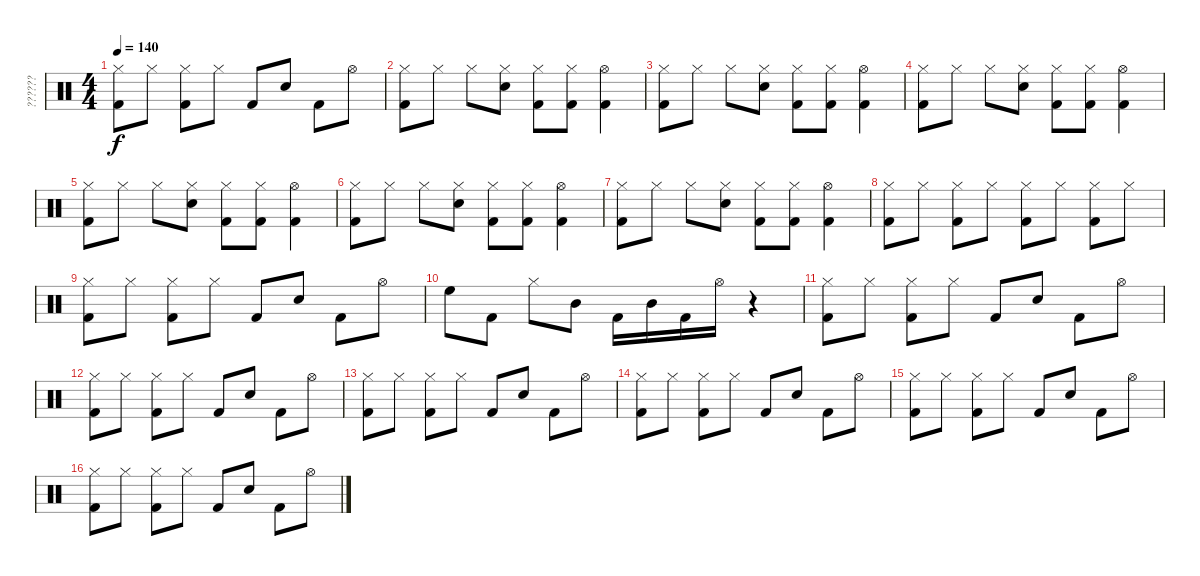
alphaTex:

\track ("??????" "??????") {instrument percussion}
\staff {score}
\articulation defaults
\ts (4 4)
\tempo 140
\clef neutral
\ks c
("Hi-Hat (closed)" "Kick (hit) 2").8{dy f} "Hi-Hat (closed)".8 ("Hi-Hat (closed)" "Kick (hit) 2").8 "Hi-Hat (closed)".8 "Kick (hit) 2".8 "Snare (hit) 2".8 "Kick (hit) 2".8 "Hi-Hat (open)".8 |
("Hi-Hat (closed)" "Kick (hit) 2").8 "Hi-Hat (closed)".8 "Hi-Hat (closed)".8 ("Hi-Hat (closed)" "Snare (hit) 2").8 ("Hi-Hat (closed)" "Kick (hit) 2").8 ("Hi-Hat (closed)" "Kick (hit) 2").8 ("Hi-Hat (open)" "Kick (hit) 2").4 |
("Hi-Hat (closed)" "Kick (hit) 2").8 "Hi-Hat (closed)".8 "Hi-Hat (closed)".8 ("Hi-Hat (closed)" "Snare (hit) 2").8 ("Hi-Hat (closed)" "Kick (hit) 2").8 ("Hi-Hat (closed)" "Kick (hit) 2").8 ("Hi-Hat (open)" "Kick (hit) 2").4 |
("Hi-Hat (closed)" "Kick (hit) 2").8 "Hi-Hat (closed)".8 "Hi-Hat (closed)".8 ("Hi-Hat (closed)" "Snare (hit) 2").8 ("Hi-Hat (closed)" "Kick (hit) 2").8 ("Hi-Hat (closed)" "Kick (hit) 2").8 ("Hi-Hat (open)" "Kick (hit) 2").4 |
("Hi-Hat (closed)" "Kick (hit) 2").8 "Hi-Hat (closed)".8 "Hi-Hat (closed)".8 ("Hi-Hat (closed)" "Snare (hit) 2").8 ("Hi-Hat (closed)" "Kick (hit) 2").8 ("Hi-Hat (closed)" "Kick (hit) 2").8 ("Hi-Hat (open)" "Kick (hit) 2").4 |
("Hi-Hat (closed)" "Kick (hit) 2").8 "Hi-Hat (closed)".8 "Hi-Hat (closed)".8 ("Hi-Hat (closed)" "Snare (hit) 2").8 ("Hi-Hat (closed)" "Kick (hit) 2").8 ("Hi-Hat (closed)" "Kick (hit) 2").8 ("Hi-Hat (open)" "Kick (hit) 2").4 |
("Hi-Hat (closed)" "Kick (hit) 2").8 "Hi-Hat (closed)".8 "Hi-Hat (closed)".8 ("Hi-Hat (closed)" "Snare (hit) 2").8 ("Hi-Hat (closed)" "Kick (hit) 2").8 ("Hi-Hat (closed)" "Kick (hit) 2").8 ("Hi-Hat (open)" "Kick (hit) 2").4 |
("Hi-Hat (closed)" "Kick (hit) 2").8 "Hi-Hat (closed)".8 ("Hi-Hat (closed)" "Kick (hit) 2").8 "Hi-Hat (closed)".8 ("Hi-Hat (closed)" "Kick (hit) 2").8 "Hi-Hat (closed)".8 ("Hi-Hat (closed)" "Kick (hit) 2").8 "Hi-Hat (closed)".8 |
("Hi-Hat (closed)" "Kick (hit) 2").8 "Hi-Hat (closed)".8 ("Hi-Hat (closed)" "Kick (hit) 2").8 "Hi-Hat (closed)".8 "Kick (hit) 2".8 "Snare (hit) 2".8 "Kick (hit) 2".8 "Hi-Hat (open)".8 |
"High Floor Tom (hit)".8 "Kick (hit) 2".8 "Hi-Hat (closed)".8 "Mid Tom (hit)".8 "Kick (hit) 2".16 "Mid Tom (hit)".16 "Kick (hit) 2".16 "Hi-Hat (open)".16 r.4 |
("Hi-Hat (closed)" "Kick (hit) 2").8 "Hi-Hat (closed)".8 ("Hi-Hat (closed)" "Kick (hit) 2").8 "Hi-Hat (closed)".8 "Kick (hit) 2".8 "Snare (hit) 2".8 "Kick (hit) 2".8 "Hi-Hat (open)".8 |
("Hi-Hat (closed)" "Kick (hit) 2").8 "Hi-Hat (closed)".8 ("Hi-Hat (closed)" "Kick (hit) 2").8 "Hi-Hat (closed)".8 "Kick (hit) 2".8 "Snare (hit) 2".8 "Kick (hit) 2".8 "Hi-Hat (open)".8 |
("Hi-Hat (closed)" "Kick (hit) 2").8 "Hi-Hat (closed)".8 ("Hi-Hat (closed)" "Kick (hit) 2").8 "Hi-Hat (closed)".8 "Kick (hit) 2".8 "Snare (hit) 2".8 "Kick (hit) 2".8 "Hi-Hat (open)".8 |
("Hi-Hat (closed)" "Kick (hit) 2").8 "Hi-Hat (closed)".8 ("Hi-Hat (closed)" "Kick (hit) 2").8 "Hi-Hat (closed)".8 "Kick (hit) 2".8 "Snare (hit) 2".8 "Kick (hit) 2".8 "Hi-Hat (open)".8 |
("Hi-Hat (closed)" "Kick (hit) 2").8 "Hi-Hat (closed)".8 ("Hi-Hat (closed)" "Kick (hit) 2").8 "Hi-Hat (closed)".8 "Kick (hit) 2".8 "Snare (hit) 2".8 "Kick (hit) 2".8 "Hi-Hat (open)".8 |
("Hi-Hat (closed)" "Kick (hit) 2").8 "Hi-Hat (closed)".8 ("Hi-Hat (closed)" "Kick (hit) 2").8 "Hi-Hat (closed)".8 "Kick (hit) 2".8 "Snare (hit) 2".8 "Kick (hit) 2".8 "Hi-Hat (open)".8
